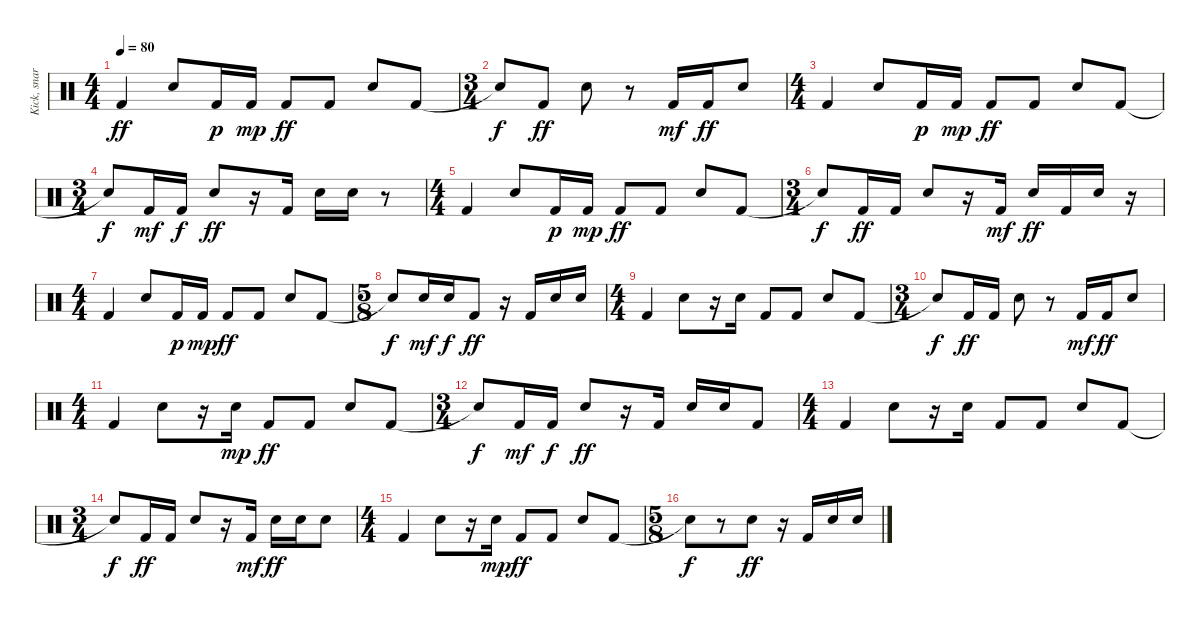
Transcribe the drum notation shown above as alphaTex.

\track ("Kick, snare" "Kick, snar") {instrument percussion}
\staff {score}
\articulation defaults
\ts (4 4)
\tempo 80
\clef neutral
\ks c "Kick (hit) 2".4{dy ff} "Snare (hit) 2".8 "Kick (hit) 2".16{dy p} "Kick (hit) 2".16{dy mp} "Kick (hit) 2".8{dy ff} "Kick (hit) 2".8 "Snare (hit) 2".8 "Kick (hit) 2".8
|
\ts (3 4)
"Snare (hit)"{t}.8{dy f} "Kick (hit) 2".8{dy ff} "Snare (hit) 2".8 r.8 "Kick (hit) 2".16{dy mf} "Kick (hit) 2".16{dy ff} "Snare (hit) 2".8 |
\ts (4 4)
"Kick (hit) 2".4 "Snare (hit) 2".8 "Kick (hit) 2".16{dy p} "Kick (hit) 2".16{dy mp} "Kick (hit) 2".8{dy ff} "Kick (hit) 2".8 "Snare (hit) 2".8 "Kick (hit) 2".8 |
\ts (3 4)
"Snare (hit)"{t}.8{dy f} "Kick (hit) 2".16{dy mf} "Kick (hit) 2".16{dy f} "Snare (hit) 2".8{dy ff} r.16 "Kick (hit) 2".16 "Snare (hit) 2".16 "Snare (hit) 2".16 r.8 |
\ts (4 4)
"Kick (hit) 2".4 "Snare (hit) 2".8 "Kick (hit) 2".16{dy p} "Kick (hit) 2".16{dy mp} "Kick (hit) 2".8{dy ff} "Kick (hit) 2".8 "Snare (hit) 2".8 "Kick (hit) 2".8 |
\ts (3 4)
"Snare (hit)"{t}.8{dy f} "Kick (hit) 2".16{dy ff} "Kick (hit) 2".16 "Snare (hit) 2".8 r.16 "Kick (hit) 2".16{dy mf} "Snare (hit) 2".16{dy ff} "Kick (hit) 2".16 "Snare (hit) 2".16 r.16 |
\ts (4 4)
"Kick (hit) 2".4 "Snare (hit) 2".8 "Kick (hit) 2".16{dy p} "Kick (hit) 2".16{dy mp} "Kick (hit) 2".8{dy ff} "Kick (hit) 2".8 "Snare (hit) 2".8 "Kick (hit) 2".8 |
\ts (5 8)
"Snare (hit)"{t}.8{dy f} "Snare (hit) 2".16{dy mf} "Snare (hit) 2".16{dy f} "Kick (hit) 2".8{dy ff} r.16 "Kick (hit) 2".16 "Snare (hit) 2".16 "Snare (hit) 2".16 |
\ts (4 4)
"Kick (hit) 2".4 "Snare (hit) 2".8 r.16 "Snare (hit) 2".16 "Kick (hit) 2".8 "Kick (hit) 2".8 "Snare (hit) 2".8 "Kick (hit) 2".8 |
\ts (3 4)
"Snare (hit)"{t}.8{dy f} "Kick (hit) 2".16{dy ff} "Kick (hit) 2".16 "Snare (hit) 2".8 r.8 "Kick (hit) 2".16{dy mf} "Kick (hit) 2".16{dy ff} "Snare (hit) 2".8 |
\ts (4 4)
"Kick (hit) 2".4 "Snare (hit) 2".8 r.16 "Snare (hit) 2".16{dy mp} "Kick (hit) 2".8{dy ff} "Kick (hit) 2".8 "Snare (hit) 2".8 "Kick (hit) 2".8 |
\ts (3 4)
"Snare (hit)"{t}.8{dy f} "Kick (hit) 2".16{dy mf} "Kick (hit) 2".16{dy f} "Snare (hit) 2".8{dy ff} r.16 "Kick (hit) 2".16 "Snare (hit) 2".16 "Snare (hit) 2".16 "Kick (hit) 2".8 |
\ts (4 4)
"Kick (hit) 2".4 "Snare (hit) 2".8 r.16 "Snare (hit) 2".16 "Kick (hit) 2".8 "Kick (hit) 2".8 "Snare (hit) 2".8 "Kick (hit) 2".8 |
\ts (3 4)
"Snare (hit)"{t}.8{dy f} "Kick (hit) 2".16{dy ff} "Kick (hit) 2".16 "Snare (hit) 2".8 r.16 "Kick (hit) 2".16{dy mf} "Snare (hit) 2".16{dy ff} "Snare (hit) 2".16 "Snare (hit) 2".8 |
\ts (4 4)
"Kick (hit) 2".4 "Snare (hit) 2".8 r.16 "Snare (hit) 2".16{dy mp} "Kick (hit) 2".8{dy ff} "Kick (hit) 2".8 "Snare (hit) 2".8 "Kick (hit) 2".8 |
\ts (5 8)
"Snare (hit)"{t}.8{dy f} r.8 "Snare (hit) 2".8{dy ff} r.16 "Kick (hit) 2".16 "Snare (hit) 2".16 "Snare (hit) 2".16
